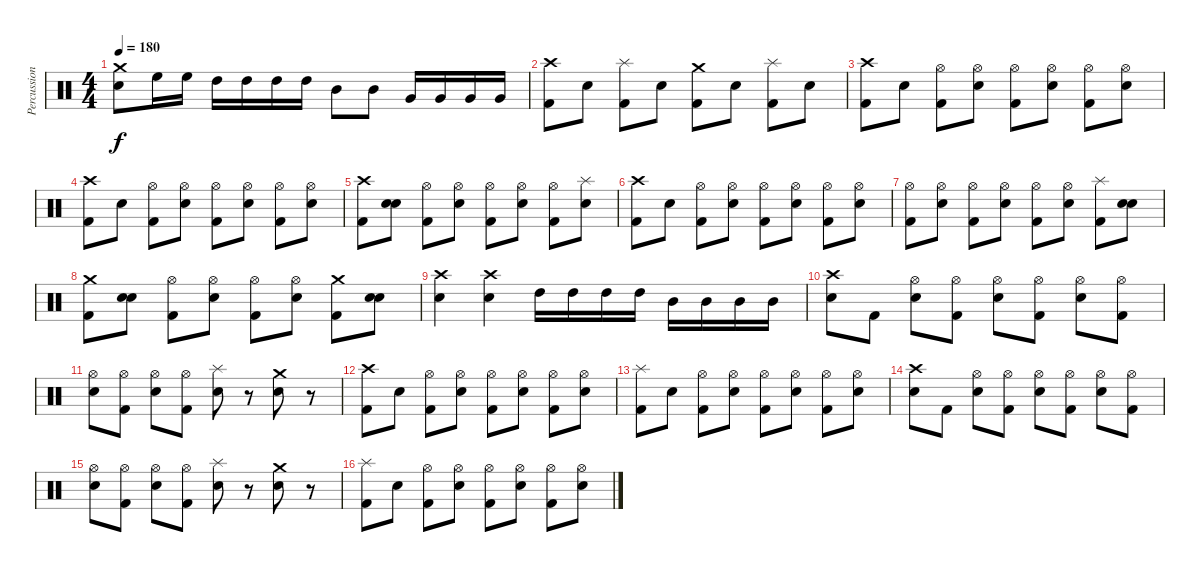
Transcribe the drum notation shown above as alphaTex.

\track ("Percussion" "Percussion") {instrument percussion}
\staff {score}
\articulation defaults
\ts (4 4)
\tempo 180
\clef neutral
\ks c
("Crash medium (hit)" "Snare (hit) 2").8{dy f} "High Floor Tom (hit)".16 "High Floor Tom (hit)".16 "High Tom (hit)".16 "High Tom (hit)".16 "High Tom (hit)".16 "High Tom (hit)".16 "Mid Tom (hit)".8 "Mid Tom (hit)".8 "Very Low Tom (hit)".16 "Very Low Tom (hit)".16 "Very Low Tom (hit)".16 "Very Low Tom (hit)".16 |
("Crash high (hit)" "Kick (hit) 2").8 "Snare (hit) 2".8 ("Splash (hit)" "Kick (hit) 2").8 "Snare (hit) 2".8 ("Crash medium (hit)" "Kick (hit) 2").8 "Snare (hit) 2".8 ("Splash (hit)" "Kick (hit) 2").8 "Snare (hit) 2".8 |
("Crash high (hit)" "Kick (hit) 2").8 "Snare (hit) 2".8 ("Hi-Hat (open)" "Kick (hit) 2").8 ("Hi-Hat (open)" "Snare (hit) 2").8 ("Hi-Hat (open)" "Kick (hit) 2").8 ("Hi-Hat (open)" "Snare (hit) 2").8 ("Hi-Hat (open)" "Kick (hit) 2").8 ("Hi-Hat (open)" "Snare (hit) 2").8 |
("Crash high (hit)" "Kick (hit) 2").8 "Snare (hit) 2".8 ("Hi-Hat (open)" "Kick (hit) 2").8 ("Hi-Hat (open)" "Snare (hit) 2").8 ("Hi-Hat (open)" "Kick (hit) 2").8 ("Hi-Hat (open)" "Snare (hit) 2").8 ("Hi-Hat (open)" "Kick (hit) 2").8 ("Hi-Hat (open)" "Snare (hit) 2").8 |
("Crash high (hit)" "Kick (hit) 2").8 ("Snare (hit)" "Snare (hit) 2").8 ("Hi-Hat (open)" "Kick (hit) 2").8 ("Hi-Hat (open)" "Snare (hit) 2").8 ("Hi-Hat (open)" "Kick (hit) 2").8 ("Hi-Hat (open)" "Snare (hit) 2").8 ("Hi-Hat (open)" "Kick (hit) 2").8 ("Splash (hit)" "Snare (hit) 2").8 |
("Crash high (hit)" "Kick (hit) 2").8 "Snare (hit) 2".8 ("Hi-Hat (open)" "Kick (hit) 2").8 ("Hi-Hat (open)" "Snare (hit) 2").8 ("Hi-Hat (open)" "Kick (hit) 2").8 ("Hi-Hat (open)" "Snare (hit) 2").8 ("Hi-Hat (open)" "Kick (hit) 2").8 ("Hi-Hat (open)" "Snare (hit) 2").8 |
("Hi-Hat (open)" "Kick (hit) 2").8 ("Hi-Hat (open)" "Snare (hit) 2").8 ("Hi-Hat (open)" "Kick (hit) 2").8 ("Hi-Hat (open)" "Snare (hit) 2").8 ("Hi-Hat (open)" "Kick (hit) 2").8 ("Hi-Hat (open)" "Snare (hit) 2").8 ("Splash (hit)" "Kick (hit) 2").8 ("Snare (hit)" "Snare (hit) 2").8 |
("Crash medium (hit)" "Kick (hit) 2").8 ("Snare (hit)" "Snare (hit) 2").8 ("Hi-Hat (open)" "Kick (hit) 2").8 ("Hi-Hat (open)" "Snare (hit) 2").8 ("Hi-Hat (open)" "Kick (hit) 2").8 ("Hi-Hat (open)" "Snare (hit) 2").8 ("Crash medium (hit)" "Kick (hit) 2").8 ("Snare (hit)" "Snare (hit) 2").8 |
("Crash high (hit)" "Snare (hit) 2").4 ("Crash high (hit)" "Snare (hit) 2").4 "High Tom (hit)".16 "High Tom (hit)".16 "High Tom (hit)".16 "High Tom (hit)".16 "Mid Tom (hit)".16 "Mid Tom (hit)".16 "Mid Tom (hit)".16 "Mid Tom (hit)".16 |
("Crash high (hit)" "Snare (hit) 2").8 "Kick (hit) 2".8 ("Hi-Hat (open)" "Snare (hit) 2").8 ("Hi-Hat (open)" "Kick (hit) 2").8 ("Hi-Hat (open)" "Snare (hit) 2").8 ("Hi-Hat (open)" "Kick (hit) 2").8 ("Hi-Hat (open)" "Snare (hit) 2").8 ("Hi-Hat (open)" "Kick (hit) 2").8 |
("Hi-Hat (open)" "Snare (hit) 2").8 ("Hi-Hat (open)" "Kick (hit) 2").8 ("Hi-Hat (open)" "Snare (hit) 2").8 ("Hi-Hat (open)" "Kick (hit) 2").8 ("Splash (hit)" "Snare (hit) 2").8 r.8 ("Crash medium (hit)" "Snare (hit) 2").8 r.8 |
("Crash high (hit)" "Kick (hit) 2").8 "Snare (hit) 2".8 ("Hi-Hat (open)" "Kick (hit) 2").8 ("Hi-Hat (open)" "Snare (hit) 2").8 ("Hi-Hat (open)" "Kick (hit) 2").8 ("Hi-Hat (open)" "Snare (hit) 2").8 ("Hi-Hat (open)" "Kick (hit) 2").8 ("Hi-Hat (open)" "Snare (hit) 2").8 |
("Splash (hit)" "Kick (hit) 2").8 "Snare (hit) 2".8 ("Hi-Hat (open)" "Kick (hit) 2").8 ("Hi-Hat (open)" "Snare (hit) 2").8 ("Hi-Hat (open)" "Kick (hit) 2").8 ("Hi-Hat (open)" "Snare (hit) 2").8 ("Hi-Hat (open)" "Kick (hit) 2").8 ("Hi-Hat (open)" "Snare (hit) 2").8 |
("Crash high (hit)" "Snare (hit) 2").8 "Kick (hit) 2".8 ("Hi-Hat (open)" "Snare (hit) 2").8 ("Hi-Hat (open)" "Kick (hit) 2").8 ("Hi-Hat (open)" "Snare (hit) 2").8 ("Hi-Hat (open)" "Kick (hit) 2").8 ("Hi-Hat (open)" "Snare (hit) 2").8 ("Hi-Hat (open)" "Kick (hit) 2").8 |
("Hi-Hat (open)" "Snare (hit) 2").8 ("Hi-Hat (open)" "Kick (hit) 2").8 ("Hi-Hat (open)" "Snare (hit) 2").8 ("Hi-Hat (open)" "Kick (hit) 2").8 ("Splash (hit)" "Snare (hit) 2").8 r.8 ("Crash medium (hit)" "Snare (hit) 2").8 r.8 |
("Splash (hit)" "Kick (hit) 2").8 "Snare (hit) 2".8 ("Hi-Hat (open)" "Kick (hit) 2").8 ("Hi-Hat (open)" "Snare (hit) 2").8 ("Hi-Hat (open)" "Kick (hit) 2").8 ("Hi-Hat (open)" "Snare (hit) 2").8 ("Hi-Hat (open)" "Kick (hit) 2").8 ("Hi-Hat (open)" "Snare (hit) 2").8
